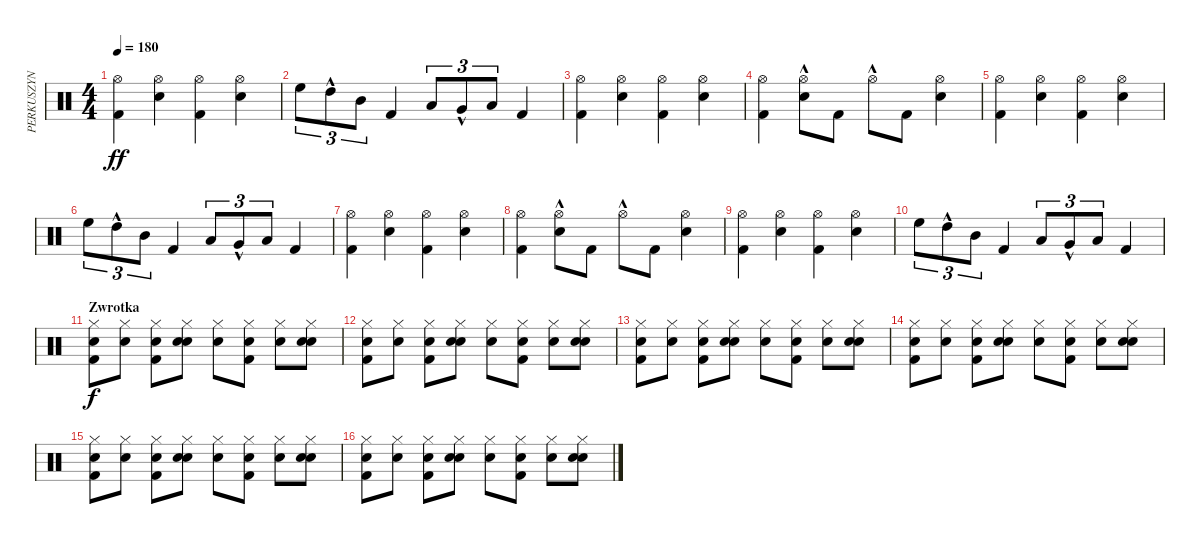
\track ("PERKUSZYN" "PERKUSZYN") {instrument percussion}
\staff {score}
\articulation defaults
\ts (4 4)
\tempo 180
\clef neutral
\ks c
("Kick (hit) 2" "Hi-Hat (open)").4{dy ff} ("Snare (hit) 2" "Hi-Hat (open)").4 ("Kick (hit) 2" "Hi-Hat (open)").4 ("Snare (hit) 2" "Hi-Hat (open)").4 |
"High Floor Tom (hit)".8{tu (3 2)} "High Tom (hit)"{hac}.8{tu (3 2)} "Mid Tom (hit)".8{tu (3 2)} "Kick (hit) 2".4 "Low Tom (hit)".8{tu (3 2)} "Very Low Tom (hit)"{hac}.8{tu (3 2)} "Low Floor Tom (hit)".8{tu (3 2)} "Kick (hit) 2".4 |
("Kick (hit) 2" "Hi-Hat (open)").4 ("Snare (hit) 2" "Hi-Hat (open)").4 ("Kick (hit) 2" "Hi-Hat (open)").4 ("Snare (hit) 2" "Hi-Hat (open)").4 |
("Kick (hit) 2" "Hi-Hat (open)").4 ("Snare (hit) 2" "Hi-Hat (open)"{hac}).8 "Kick (hit) 2".8 "Hi-Hat (open)"{hac}.8 "Kick (hit) 2".8 ("Snare (hit) 2" "Hi-Hat (open)").4 |
("Kick (hit) 2" "Hi-Hat (open)").4 ("Snare (hit) 2" "Hi-Hat (open)").4 ("Kick (hit) 2" "Hi-Hat (open)").4 ("Snare (hit) 2" "Hi-Hat (open)").4 |
"High Floor Tom (hit)".8{tu (3 2)} "High Tom (hit)"{hac}.8{tu (3 2)} "Mid Tom (hit)".8{tu (3 2)} "Kick (hit) 2".4 "Low Tom (hit)".8{tu (3 2)} "Very Low Tom (hit)"{hac}.8{tu (3 2)} "Low Floor Tom (hit)".8{tu (3 2)} "Kick (hit) 2".4 |
("Kick (hit) 2" "Hi-Hat (open)").4 ("Snare (hit) 2" "Hi-Hat (open)").4 ("Kick (hit) 2" "Hi-Hat (open)").4 ("Snare (hit) 2" "Hi-Hat (open)").4 |
("Kick (hit) 2" "Hi-Hat (open)").4 ("Snare (hit) 2" "Hi-Hat (open)"{hac}).8 "Kick (hit) 2".8 "Hi-Hat (open)"{hac}.8 "Kick (hit) 2".8 ("Snare (hit) 2" "Hi-Hat (open)").4 |
("Kick (hit) 2" "Hi-Hat (open)").4 ("Snare (hit) 2" "Hi-Hat (open)").4 ("Kick (hit) 2" "Hi-Hat (open)").4 ("Snare (hit) 2" "Hi-Hat (open)").4 |
"High Floor Tom (hit)".8{tu (3 2)} "High Tom (hit)"{hac}.8{tu (3 2)} "Mid Tom (hit)".8{tu (3 2)} "Kick (hit) 2".4 "Low Tom (hit)".8{tu (3 2)} "Very Low Tom (hit)"{hac}.8{tu (3 2)} "Low Floor Tom (hit)".8{tu (3 2)} "Kick (hit) 2".4 |
\section ("" "Zwrotka")
("Snare (hit)" "Kick (hit) 2" "Hi-Hat (closed)").8{dy f} ("Snare (hit)" "Hi-Hat (closed)").8 ("Snare (hit)" "Kick (hit) 2" "Hi-Hat (closed)").8 ("Snare (hit)" "Snare (hit) 2" "Hi-Hat (closed)").8 ("Snare (hit)" "Hi-Hat (closed)").8 ("Snare (hit)" "Kick (hit) 2" "Hi-Hat (closed)").8 ("Snare (hit)" "Hi-Hat (closed)").8 ("Snare (hit)" "Snare (hit) 2" "Hi-Hat (closed)").8 |
("Snare (hit)" "Kick (hit) 2" "Hi-Hat (closed)").8 ("Snare (hit)" "Hi-Hat (closed)").8 ("Snare (hit)" "Kick (hit) 2" "Hi-Hat (closed)").8 ("Snare (hit)" "Snare (hit) 2" "Hi-Hat (closed)").8 ("Snare (hit)" "Hi-Hat (closed)").8 ("Snare (hit)" "Kick (hit) 2" "Hi-Hat (closed)").8 ("Snare (hit)" "Hi-Hat (closed)").8 ("Snare (hit)" "Snare (hit) 2" "Hi-Hat (closed)").8 |
("Snare (hit)" "Kick (hit) 2" "Hi-Hat (closed)").8 ("Snare (hit)" "Hi-Hat (closed)").8 ("Snare (hit)" "Kick (hit) 2" "Hi-Hat (closed)").8 ("Snare (hit)" "Snare (hit) 2" "Hi-Hat (closed)").8 ("Snare (hit)" "Hi-Hat (closed)").8 ("Snare (hit)" "Kick (hit) 2" "Hi-Hat (closed)").8 ("Snare (hit)" "Hi-Hat (closed)").8 ("Snare (hit)" "Snare (hit) 2" "Hi-Hat (closed)").8 |
("Snare (hit)" "Kick (hit) 2" "Hi-Hat (closed)").8 ("Snare (hit)" "Hi-Hat (closed)").8 ("Snare (hit)" "Kick (hit) 2" "Hi-Hat (closed)").8 ("Snare (hit)" "Snare (hit) 2" "Hi-Hat (closed)").8 ("Snare (hit)" "Hi-Hat (closed)").8 ("Snare (hit)" "Kick (hit) 2" "Hi-Hat (closed)").8 ("Snare (hit)" "Hi-Hat (closed)").8 ("Snare (hit)" "Snare (hit) 2" "Hi-Hat (closed)").8 |
("Snare (hit)" "Kick (hit) 2" "Hi-Hat (closed)").8 ("Snare (hit)" "Hi-Hat (closed)").8 ("Snare (hit)" "Kick (hit) 2" "Hi-Hat (closed)").8 ("Snare (hit)" "Snare (hit) 2" "Hi-Hat (closed)").8 ("Snare (hit)" "Hi-Hat (closed)").8 ("Snare (hit)" "Kick (hit) 2" "Hi-Hat (closed)").8 ("Snare (hit)" "Hi-Hat (closed)").8 ("Snare (hit)" "Snare (hit) 2" "Hi-Hat (closed)").8 |
("Snare (hit)" "Kick (hit) 2" "Hi-Hat (closed)").8 ("Snare (hit)" "Hi-Hat (closed)").8 ("Snare (hit)" "Kick (hit) 2" "Hi-Hat (closed)").8 ("Snare (hit)" "Snare (hit) 2" "Hi-Hat (closed)").8 ("Snare (hit)" "Hi-Hat (closed)").8 ("Snare (hit)" "Kick (hit) 2" "Hi-Hat (closed)").8 ("Snare (hit)" "Hi-Hat (closed)").8 ("Snare (hit)" "Snare (hit) 2" "Hi-Hat (closed)").8
